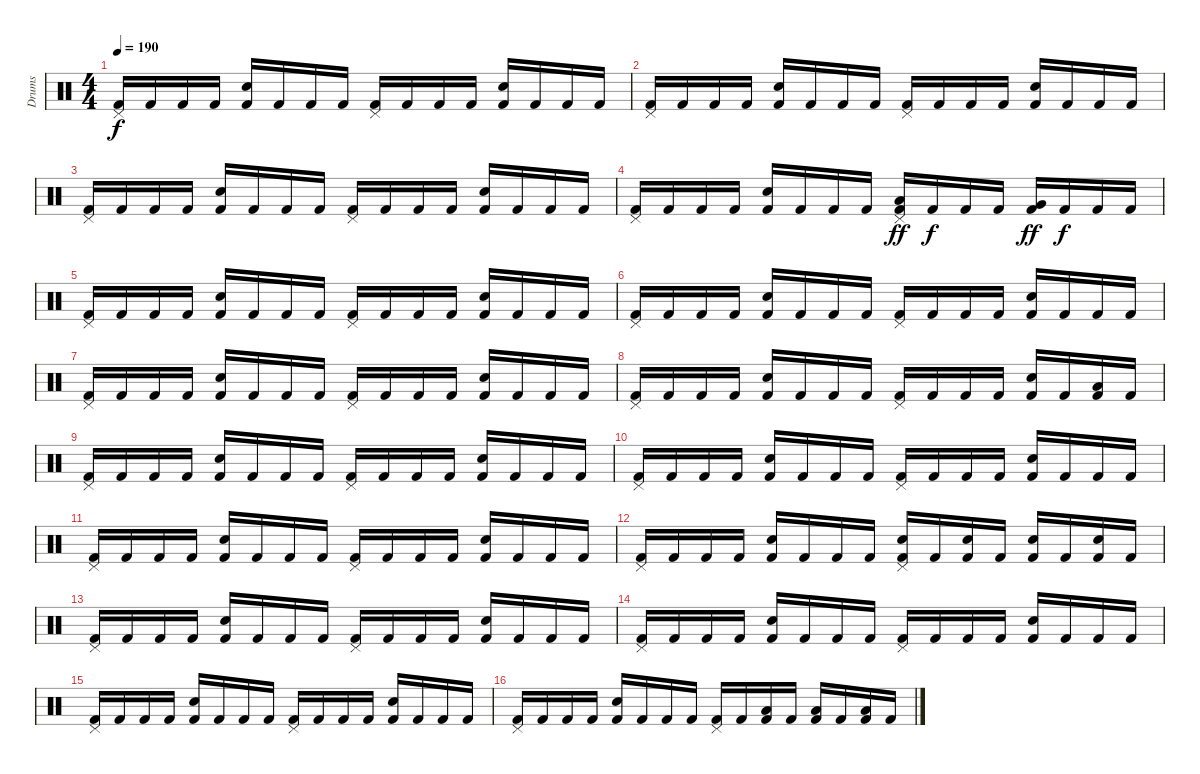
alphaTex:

\track ("Drums" "Drums") {instrument percussion}
\staff {score}
\articulation defaults
\ts (4 4)
\tempo 190
\clef neutral
\ks c
("Pedal Hi-Hat (hit)" "Kick (hit) 2").16{dy f} "Kick (hit) 2".16 "Kick (hit) 2".16 "Kick (hit) 2".16 ("Electric Snare (hit)" "Kick (hit) 2").16 "Kick (hit) 2".16 "Kick (hit) 2".16 "Kick (hit) 2".16 ("Pedal Hi-Hat (hit)" "Kick (hit) 2").16 "Kick (hit) 2".16 "Kick (hit) 2".16 "Kick (hit) 2".16 ("Electric Snare (hit)" "Kick (hit) 2").16 "Kick (hit) 2".16 "Kick (hit) 2".16 "Kick (hit) 2".16 |
("Pedal Hi-Hat (hit)" "Kick (hit) 2").16 "Kick (hit) 2".16 "Kick (hit) 2".16 "Kick (hit) 2".16 ("Electric Snare (hit)" "Kick (hit) 2").16 "Kick (hit) 2".16 "Kick (hit) 2".16 "Kick (hit) 2".16 ("Pedal Hi-Hat (hit)" "Kick (hit) 2").16 "Kick (hit) 2".16 "Kick (hit) 2".16 "Kick (hit) 2".16 ("Electric Snare (hit)" "Kick (hit) 2").16 "Kick (hit) 2".16 "Kick (hit) 2".16 "Kick (hit) 2".16 |
("Pedal Hi-Hat (hit)" "Kick (hit) 2").16 "Kick (hit) 2".16 "Kick (hit) 2".16 "Kick (hit) 2".16 ("Electric Snare (hit)" "Kick (hit) 2").16 "Kick (hit) 2".16 "Kick (hit) 2".16 "Kick (hit) 2".16 ("Pedal Hi-Hat (hit)" "Kick (hit) 2").16 "Kick (hit) 2".16 "Kick (hit) 2".16 "Kick (hit) 2".16 ("Electric Snare (hit)" "Kick (hit) 2").16 "Kick (hit) 2".16 "Kick (hit) 2".16 "Kick (hit) 2".16 |
("Pedal Hi-Hat (hit)" "Kick (hit) 2").16 "Kick (hit) 2".16 "Kick (hit) 2".16 "Kick (hit) 2".16 ("Electric Snare (hit)" "Kick (hit) 2").16 "Kick (hit) 2".16 "Kick (hit) 2".16 "Kick (hit) 2".16 ("Pedal Hi-Hat (hit)" "Low Tom (hit)" "Kick (hit) 2").16{dy ff} "Kick (hit) 2".16{dy f} "Kick (hit) 2".16 "Kick (hit) 2".16 ("Very Low Tom (hit)" "Kick (hit) 2").16{dy ff} "Kick (hit) 2".16{dy f} "Kick (hit) 2".16 "Kick (hit) 2".16 |
("Pedal Hi-Hat (hit)" "Kick (hit) 2").16 "Kick (hit) 2".16 "Kick (hit) 2".16 "Kick (hit) 2".16 ("Electric Snare (hit)" "Kick (hit) 2").16 "Kick (hit) 2".16 "Kick (hit) 2".16 "Kick (hit) 2".16 ("Pedal Hi-Hat (hit)" "Kick (hit) 2").16 "Kick (hit) 2".16 "Kick (hit) 2".16 "Kick (hit) 2".16 ("Electric Snare (hit)" "Kick (hit) 2").16 "Kick (hit) 2".16 "Kick (hit) 2".16 "Kick (hit) 2".16 |
("Pedal Hi-Hat (hit)" "Kick (hit) 2").16 "Kick (hit) 2".16 "Kick (hit) 2".16 "Kick (hit) 2".16 ("Electric Snare (hit)" "Kick (hit) 2").16 "Kick (hit) 2".16 "Kick (hit) 2".16 "Kick (hit) 2".16 ("Pedal Hi-Hat (hit)" "Kick (hit) 2").16 "Kick (hit) 2".16 "Kick (hit) 2".16 "Kick (hit) 2".16 ("Electric Snare (hit)" "Kick (hit) 2").16 "Kick (hit) 2".16 "Kick (hit) 2".16 "Kick (hit) 2".16 |
("Pedal Hi-Hat (hit)" "Kick (hit) 2").16 "Kick (hit) 2".16 "Kick (hit) 2".16 "Kick (hit) 2".16 ("Electric Snare (hit)" "Kick (hit) 2").16 "Kick (hit) 2".16 "Kick (hit) 2".16 "Kick (hit) 2".16 ("Pedal Hi-Hat (hit)" "Kick (hit) 2").16 "Kick (hit) 2".16 "Kick (hit) 2".16 "Kick (hit) 2".16 ("Electric Snare (hit)" "Kick (hit) 2").16 "Kick (hit) 2".16 "Kick (hit) 2".16 "Kick (hit) 2".16 |
("Pedal Hi-Hat (hit)" "Kick (hit) 2").16 "Kick (hit) 2".16 "Kick (hit) 2".16 "Kick (hit) 2".16 ("Electric Snare (hit)" "Kick (hit) 2").16 "Kick (hit) 2".16 "Kick (hit) 2".16 "Kick (hit) 2".16 ("Pedal Hi-Hat (hit)" "Kick (hit) 2").16 "Kick (hit) 2".16 "Kick (hit) 2".16 "Kick (hit) 2".16 ("Electric Snare (hit)" "Kick (hit) 2").16 "Kick (hit) 2".16 ("Low Tom (hit)" "Kick (hit) 2").16 "Kick (hit) 2".16 |
("Pedal Hi-Hat (hit)" "Kick (hit) 2").16 "Kick (hit) 2".16 "Kick (hit) 2".16 "Kick (hit) 2".16 ("Electric Snare (hit)" "Kick (hit) 2").16 "Kick (hit) 2".16 "Kick (hit) 2".16 "Kick (hit) 2".16 ("Pedal Hi-Hat (hit)" "Kick (hit) 2").16 "Kick (hit) 2".16 "Kick (hit) 2".16 "Kick (hit) 2".16 ("Electric Snare (hit)" "Kick (hit) 2").16 "Kick (hit) 2".16 "Kick (hit) 2".16 "Kick (hit) 2".16 |
("Pedal Hi-Hat (hit)" "Kick (hit) 2").16 "Kick (hit) 2".16 "Kick (hit) 2".16 "Kick (hit) 2".16 ("Electric Snare (hit)" "Kick (hit) 2").16 "Kick (hit) 2".16 "Kick (hit) 2".16 "Kick (hit) 2".16 ("Pedal Hi-Hat (hit)" "Kick (hit) 2").16 "Kick (hit) 2".16 "Kick (hit) 2".16 "Kick (hit) 2".16 ("Electric Snare (hit)" "Kick (hit) 2").16 "Kick (hit) 2".16 "Kick (hit) 2".16 "Kick (hit) 2".16 |
("Pedal Hi-Hat (hit)" "Kick (hit) 2").16 "Kick (hit) 2".16 "Kick (hit) 2".16 "Kick (hit) 2".16 ("Electric Snare (hit)" "Kick (hit) 2").16 "Kick (hit) 2".16 "Kick (hit) 2".16 "Kick (hit) 2".16 ("Pedal Hi-Hat (hit)" "Kick (hit) 2").16 "Kick (hit) 2".16 "Kick (hit) 2".16 "Kick (hit) 2".16 ("Electric Snare (hit)" "Kick (hit) 2").16 "Kick (hit) 2".16 "Kick (hit) 2".16 "Kick (hit) 2".16 |
("Pedal Hi-Hat (hit)" "Kick (hit) 2").16 "Kick (hit) 2".16 "Kick (hit) 2".16 "Kick (hit) 2".16 ("Electric Snare (hit)" "Kick (hit) 2").16 "Kick (hit) 2".16 "Kick (hit) 2".16 "Kick (hit) 2".16 ("Pedal Hi-Hat (hit)" "Electric Snare (hit)" "Kick (hit) 2").16 "Kick (hit) 2".16 ("Electric Snare (hit)" "Kick (hit) 2").16 "Kick (hit) 2".16 ("Electric Snare (hit)" "Kick (hit) 2").16 "Kick (hit) 2".16 ("Electric Snare (hit)" "Kick (hit) 2").16 "Kick (hit) 2".16 |
("Pedal Hi-Hat (hit)" "Kick (hit) 2").16 "Kick (hit) 2".16 "Kick (hit) 2".16 "Kick (hit) 2".16 ("Electric Snare (hit)" "Kick (hit) 2").16 "Kick (hit) 2".16 "Kick (hit) 2".16 "Kick (hit) 2".16 ("Pedal Hi-Hat (hit)" "Kick (hit) 2").16 "Kick (hit) 2".16 "Kick (hit) 2".16 "Kick (hit) 2".16 ("Electric Snare (hit)" "Kick (hit) 2").16 "Kick (hit) 2".16 "Kick (hit) 2".16 "Kick (hit) 2".16 |
("Pedal Hi-Hat (hit)" "Kick (hit) 2").16 "Kick (hit) 2".16 "Kick (hit) 2".16 "Kick (hit) 2".16 ("Electric Snare (hit)" "Kick (hit) 2").16 "Kick (hit) 2".16 "Kick (hit) 2".16 "Kick (hit) 2".16 ("Pedal Hi-Hat (hit)" "Kick (hit) 2").16 "Kick (hit) 2".16 "Kick (hit) 2".16 "Kick (hit) 2".16 ("Electric Snare (hit)" "Kick (hit) 2").16 "Kick (hit) 2".16 "Kick (hit) 2".16 "Kick (hit) 2".16 |
("Pedal Hi-Hat (hit)" "Kick (hit) 2").16 "Kick (hit) 2".16 "Kick (hit) 2".16 "Kick (hit) 2".16 ("Electric Snare (hit)" "Kick (hit) 2").16 "Kick (hit) 2".16 "Kick (hit) 2".16 "Kick (hit) 2".16 ("Pedal Hi-Hat (hit)" "Kick (hit) 2").16 "Kick (hit) 2".16 "Kick (hit) 2".16 "Kick (hit) 2".16 ("Electric Snare (hit)" "Kick (hit) 2").16 "Kick (hit) 2".16 "Kick (hit) 2".16 "Kick (hit) 2".16 |
("Pedal Hi-Hat (hit)" "Kick (hit) 2").16 "Kick (hit) 2".16 "Kick (hit) 2".16 "Kick (hit) 2".16 ("Electric Snare (hit)" "Kick (hit) 2").16 "Kick (hit) 2".16 "Kick (hit) 2".16 "Kick (hit) 2".16 ("Pedal Hi-Hat (hit)" "Kick (hit) 2").16 "Kick (hit) 2".16 ("Low Tom (hit)" "Kick (hit) 2").16 "Kick (hit) 2".16 ("Low Tom (hit)" "Kick (hit) 2").16 "Kick (hit) 2".16 ("Low Tom (hit)" "Kick (hit) 2").16 "Kick (hit) 2".16
